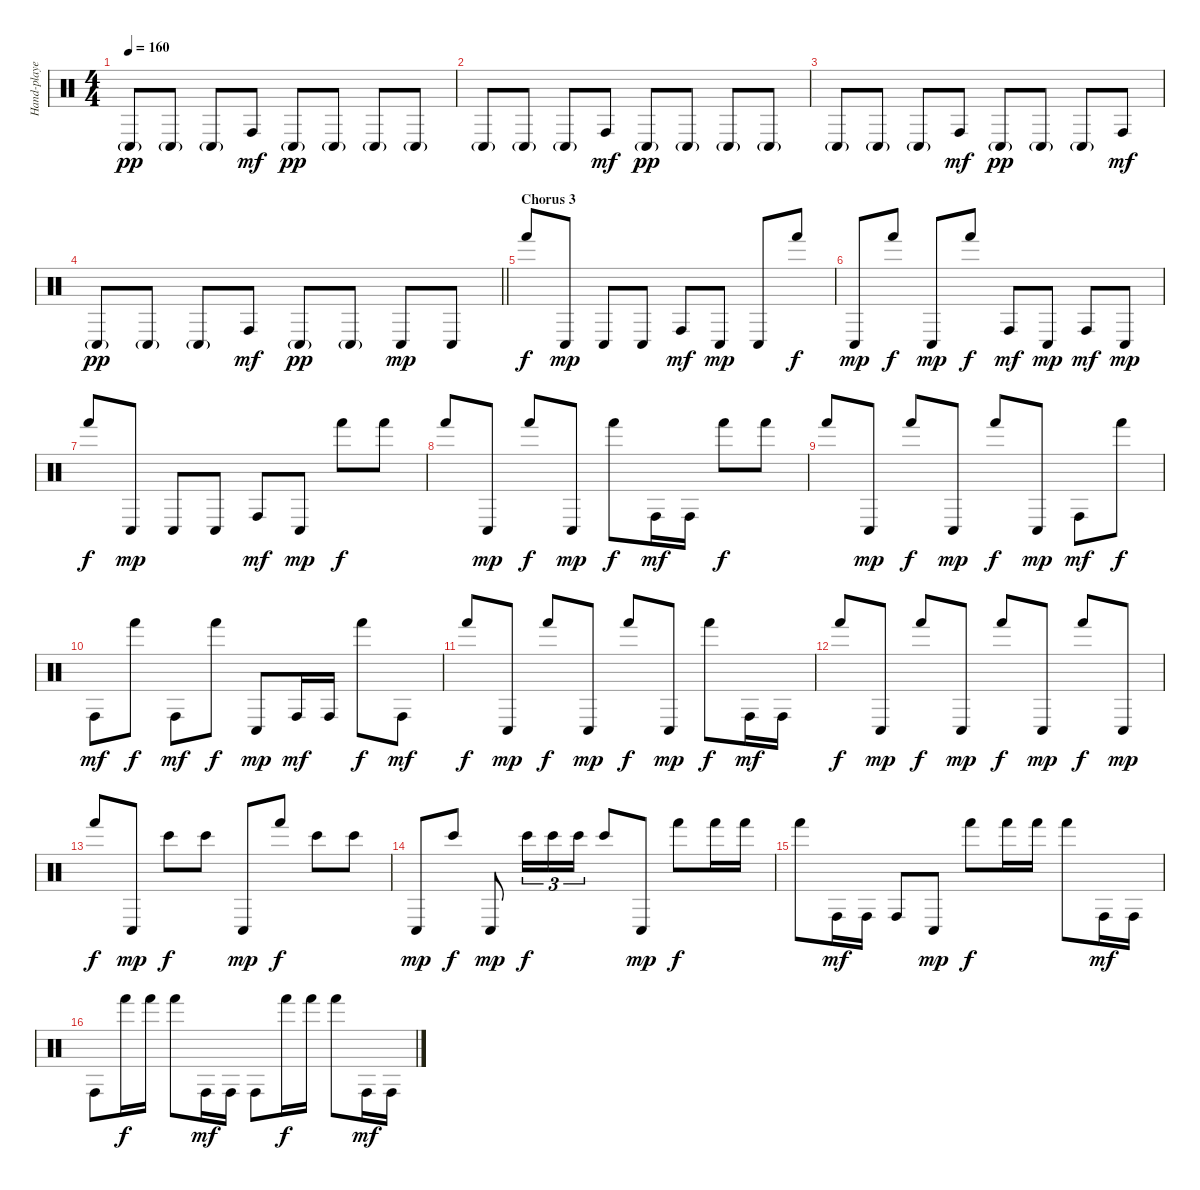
\track ("Hand-played drums" "Hand-playe") {instrument percussion}
\staff {score}
\articulation defaults
\ts (4 4)
\tempo 160
\clef neutral
\ks c "Conga low (hit)"{g}.8{dy pp} "Conga low (hit)"{g}.8 "Conga low (hit)"{g}.8 "Conga high (hit)".8{dy mf} "Conga low (hit)"{g}.8{dy pp} "Conga low (hit)"{g}.8 "Conga low (hit)"{g}.8 "Conga low (hit)"{g}.8
|
"Conga low (hit)"{g}.8 "Conga low (hit)"{g}.8 "Conga low (hit)"{g}.8 "Conga high (hit)".8{dy mf} "Conga low (hit)"{g}.8{dy pp} "Conga low (hit)"{g}.8 "Conga low (hit)"{g}.8 "Conga low (hit)"{g}.8 |
"Conga low (hit)"{g}.8 "Conga low (hit)"{g}.8 "Conga low (hit)"{g}.8 "Conga high (hit)".8{dy mf} "Conga low (hit)"{g}.8{dy pp} "Conga low (hit)"{g}.8 "Conga low (hit)"{g}.8 "Conga high (hit)".8{dy mf} |
\barLineRight lightlight "Conga low (hit)"{g}.8{dy pp} "Conga low (hit)"{g}.8 "Conga low (hit)"{g}.8 "Conga high (hit)".8{dy mf} "Conga low (hit)"{g}.8{dy pp} "Conga low (hit)"{g}.8 "Conga low (hit)".8{dy mp} "Conga low (hit)".8
|
\section ("" "Chorus 3")
"Hand (hit)".8{dy f} "Conga low (hit)".8{dy mp} "Conga low (hit)".8 "Conga low (hit)".8 "Conga high (hit)".8{dy mf} "Conga low (hit)".8{dy mp} "Conga low (hit)".8 "Hand (hit)".8{dy f} |
"Conga low (hit)".8{dy mp} "Hand (hit)".8{dy f} "Conga low (hit)".8{dy mp} "Hand (hit)".8{dy f} "Conga high (hit)".8{dy mf} "Conga low (hit)".8{dy mp} "Conga high (hit)".8{dy mf} "Conga low (hit)".8{dy mp} |
"Hand (hit)".8{dy f} "Conga low (hit)".8{dy mp} "Conga low (hit)".8 "Conga low (hit)".8 "Conga high (hit)".8{dy mf} "Conga low (hit)".8{dy mp} "Hand (hit)".8{dy f} "Hand (hit)".8 |
"Hand (hit)".8 "Conga low (hit)".8{dy mp} "Hand (hit)".8{dy f} "Conga low (hit)".8{dy mp} "Hand (hit)".8{dy f} "Conga high (hit)".16{dy mf} "Conga high (hit)".16 "Hand (hit)".8{dy f} "Hand (hit)".8 |
"Hand (hit)".8 "Conga low (hit)".8{dy mp} "Hand (hit)".8{dy f} "Conga low (hit)".8{dy mp} "Hand (hit)".8{dy f} "Conga low (hit)".8{dy mp} "Conga high (hit)".8{dy mf} "Hand (hit)".8{dy f} |
"Conga high (hit)".8{dy mf} "Hand (hit)".8{dy f} "Conga high (hit)".8{dy mf} "Hand (hit)".8{dy f} "Conga low (hit)".8{dy mp} "Conga high (hit)".16{dy mf} "Conga high (hit)".16 "Hand (hit)".8{dy f} "Conga high (hit)".8{dy mf} |
"Hand (hit)".8{dy f} "Conga low (hit)".8{dy mp} "Hand (hit)".8{dy f} "Conga low (hit)".8{dy mp} "Hand (hit)".8{dy f} "Conga low (hit)".8{dy mp} "Hand (hit)".8{dy f} "Conga high (hit)".16{dy mf} "Conga high (hit)".16 |
"Hand (hit)".8{dy f} "Conga low (hit)".8{dy mp} "Hand (hit)".8{dy f} "Conga low (hit)".8{dy mp} "Hand (hit)".8{dy f} "Conga low (hit)".8{dy mp} "Hand (hit)".8{dy f} "Conga low (hit)".8{dy mp} |
"Hand (hit)".8{dy f} "Conga low (hit)".8{dy mp} "Bongo High (hit)".8{dy f} "Bongo High (hit)".8 "Conga low (hit)".8{dy mp} "Hand (hit)".8{dy f} "Bongo High (hit)".8 "Bongo High (hit)".8 |
"Conga low (hit)".8{dy mp} "Bongo High (hit)".8{dy f} "Conga low (hit)".8{dy mp} "Bongo High (hit)".16{tu (3 2) dy f} "Bongo High (hit)".16{tu (3 2)} "Bongo High (hit)".16{tu (3 2)} "Bongo High (hit)".8 "Conga low (hit)".8{dy mp} "Hand (hit)".8{dy f} "Hand (hit)".16 "Hand (hit)".16 |
"Hand (hit)".8 "Conga high (hit)".16{dy mf} "Conga high (hit)".16 "Conga high (hit)".8 "Conga low (hit)".8{dy mp} "Hand (hit)".8{dy f} "Hand (hit)".16 "Hand (hit)".16 "Hand (hit)".8 "Conga high (hit)".16{dy mf} "Conga high (hit)".16 |
"Conga high (hit)".8 "Hand (hit)".16{dy f} "Hand (hit)".16 "Hand (hit)".8 "Conga high (hit)".16{dy mf} "Conga high (hit)".16 "Conga high (hit)".8 "Hand (hit)".16{dy f} "Hand (hit)".16 "Hand (hit)".8 "Conga high (hit)".16{dy mf} "Conga high (hit)".16
